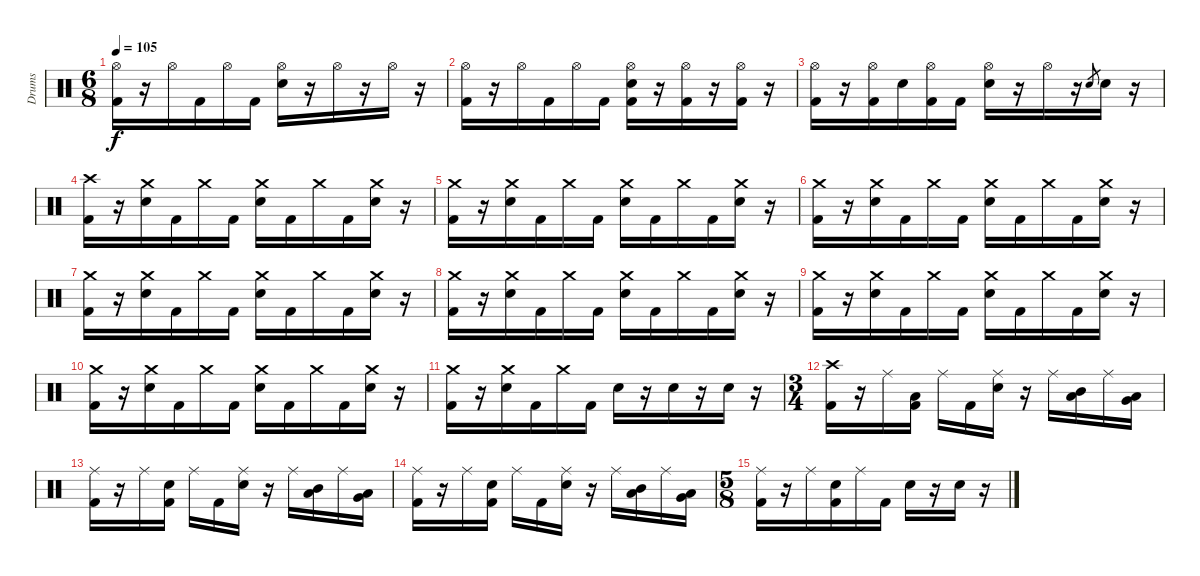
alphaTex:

\track ("Drums" "Drums") {instrument percussion}
\staff {score}
\articulation defaults
\ts (6 8)
\tempo 105
\clef neutral
\ks c
("Hi-Hat (open)" "Kick (hit) 2").16{dy f} r.16 "Hi-Hat (open)".16 "Kick (hit) 2".16 "Hi-Hat (open)".16 "Kick (hit) 2".16 ("Hi-Hat (open)" "Electric Snare (hit)").16 r.16 "Hi-Hat (open)".16 r.16 "Hi-Hat (open)".16 r.16 |
("Hi-Hat (open)" "Kick (hit) 2").16 r.16 "Hi-Hat (open)".16 "Kick (hit) 2".16 "Hi-Hat (open)".16 "Kick (hit) 2".16 ("Hi-Hat (open)" "Electric Snare (hit)" "Kick (hit) 2").16 r.16 ("Hi-Hat (open)" "Kick (hit) 2").16 r.16 ("Hi-Hat (open)" "Kick (hit) 2").16 r.16 |
("Hi-Hat (open)" "Kick (hit) 2").16 r.16 ("Hi-Hat (open)" "Kick (hit) 2").16 "Electric Snare (hit)".16 ("Hi-Hat (open)" "Kick (hit) 2").16 "Kick (hit) 2".16 ("Hi-Hat (open)" "Electric Snare (hit)").16 r.16 "Hi-Hat (open)".16 r.16 "Electric Snare (hit)".8{gr} "Electric Snare (hit)".16 r.16 |
("Crash high (hit)" "Kick (hit) 2").16 r.16 ("Crash medium (hit)" "Electric Snare (hit)").16 "Kick (hit) 2".16 "Crash medium (hit)".16 "Kick (hit) 2".16 ("Crash medium (hit)" "Electric Snare (hit)").16 "Kick (hit) 2".16 "Crash medium (hit)".16 "Kick (hit) 2".16 ("Crash medium (hit)" "Electric Snare (hit)").16 r.16 |
("Crash medium (hit)" "Kick (hit) 2").16 r.16 ("Crash medium (hit)" "Electric Snare (hit)").16 "Kick (hit) 2".16 "Crash medium (hit)".16 "Kick (hit) 2".16 ("Crash medium (hit)" "Electric Snare (hit)").16 "Kick (hit) 2".16 "Crash medium (hit)".16 "Kick (hit) 2".16 ("Crash medium (hit)" "Electric Snare (hit)").16 r.16 |
("Crash medium (hit)" "Kick (hit) 2").16 r.16 ("Crash medium (hit)" "Electric Snare (hit)").16 "Kick (hit) 2".16 "Crash medium (hit)".16 "Kick (hit) 2".16 ("Crash medium (hit)" "Electric Snare (hit)").16 "Kick (hit) 2".16 "Crash medium (hit)".16 "Kick (hit) 2".16 ("Crash medium (hit)" "Electric Snare (hit)").16 r.16 |
("Crash medium (hit)" "Kick (hit) 2").16 r.16 ("Crash medium (hit)" "Electric Snare (hit)").16 "Kick (hit) 2".16 "Crash medium (hit)".16 "Kick (hit) 2".16 ("Crash medium (hit)" "Electric Snare (hit)").16 "Kick (hit) 2".16 "Crash medium (hit)".16 "Kick (hit) 2".16 ("Crash medium (hit)" "Electric Snare (hit)").16 r.16 |
("Crash medium (hit)" "Kick (hit) 2").16 r.16 ("Crash medium (hit)" "Electric Snare (hit)").16 "Kick (hit) 2".16 "Crash medium (hit)".16 "Kick (hit) 2".16 ("Crash medium (hit)" "Electric Snare (hit)").16 "Kick (hit) 2".16 "Crash medium (hit)".16 "Kick (hit) 2".16 ("Crash medium (hit)" "Electric Snare (hit)").16 r.16 |
("Crash medium (hit)" "Kick (hit) 2").16 r.16 ("Crash medium (hit)" "Electric Snare (hit)").16 "Kick (hit) 2".16 "Crash medium (hit)".16 "Kick (hit) 2".16 ("Crash medium (hit)" "Electric Snare (hit)").16 "Kick (hit) 2".16 "Crash medium (hit)".16 "Kick (hit) 2".16 ("Crash medium (hit)" "Electric Snare (hit)").16 r.16 |
("Crash medium (hit)" "Kick (hit) 2").16 r.16 ("Crash medium (hit)" "Electric Snare (hit)").16 "Kick (hit) 2".16 "Crash medium (hit)".16 "Kick (hit) 2".16 ("Crash medium (hit)" "Electric Snare (hit)").16 "Kick (hit) 2".16 "Crash medium (hit)".16 "Kick (hit) 2".16 ("Crash medium (hit)" "Electric Snare (hit)").16 r.16 |
("Crash medium (hit)" "Kick (hit) 2").16 r.16 ("Crash medium (hit)" "Electric Snare (hit)").16 "Kick (hit) 2".16 "Crash medium (hit)".16 "Kick (hit) 2".16 "Electric Snare (hit)".16 r.16 "Electric Snare (hit)".16 r.16 "Electric Snare (hit)".16 r.16 |
\ts (3 4)
("Crash high (hit)" "Kick (hit) 2").16 r.16 "Ride (middle)".16 ("Low Tom (hit)" "Kick (hit) 2").16 "Ride (middle)".16 "Kick (hit) 2".16 ("Ride (middle)" "Electric Snare (hit)").16 r.16 "Ride (middle)".16 ("Mid Tom (hit)" "Low Tom (hit)").16 "Ride (middle)".16 ("Low Tom (hit)" "Very Low Tom (hit)").16 |
("Ride (middle)" "Kick (hit) 2").16 r.16 "Ride (middle)".16 ("Electric Snare (hit)" "Kick (hit) 2").16 "Ride (middle)".16 "Kick (hit) 2".16 ("Ride (middle)" "Electric Snare (hit)").16 r.16 "Ride (middle)".16 ("Mid Tom (hit)" "Low Tom (hit)").16 "Ride (middle)".16 ("Low Tom (hit)" "Very Low Tom (hit)").16 |
("Ride (middle)" "Kick (hit) 2").16 r.16 "Ride (middle)".16 ("Electric Snare (hit)" "Kick (hit) 2").16 "Ride (middle)".16 "Kick (hit) 2".16 ("Ride (middle)" "Electric Snare (hit)").16 r.16 "Ride (middle)".16 ("Mid Tom (hit)" "Low Tom (hit)").16 "Ride (middle)".16 ("Low Tom (hit)" "Very Low Tom (hit)").16 |
\ts (5 8)
("Ride (middle)" "Kick (hit) 2").16 r.16 "Ride (middle)".16 ("Electric Snare (hit)" "Kick (hit) 2").16 "Ride (middle)".16 "Kick (hit) 2".16 "Electric Snare (hit)".16 r.16 "Electric Snare (hit)".16 r.16
